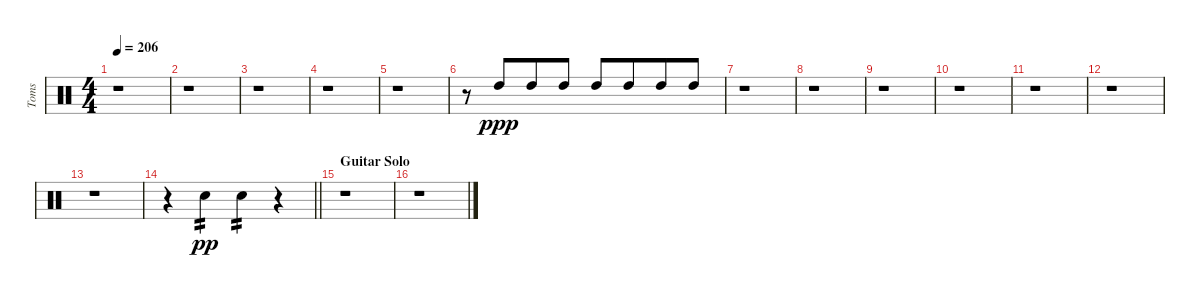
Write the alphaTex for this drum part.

\track ("Toms" "Toms") {instrument percussion}
\staff {score}
\articulation defaults
\ts (4 4)
\tempo 206
\clef neutral
\ks c
r.1{dy ff} |
r.1 |
r.1 |
r.1 |
r.1 |
r.8{balance 8} "High Tom (hit)".8{dy ppp beam Up beam merge} "High Tom (hit)".8{beam Up} "High Tom (hit)".8{beam Up} "High Tom (hit)".8{beam Up} "High Tom (hit)".8{beam Up beam merge} "High Tom (hit)".8{beam Up} "High Tom (hit)".8{beam Up} |
r.1 |
r.1 |
r.1 |
r.1 |
r.1 |
r.1 |
r.1 |
\barLineRight lightlight
r.4 "Snare (hit) 2".4{tp 2 dy pp} "Snare (hit) 2".4{tp 2} r.4 |
\section ("" "Guitar Solo")
r.1 |
r.1
